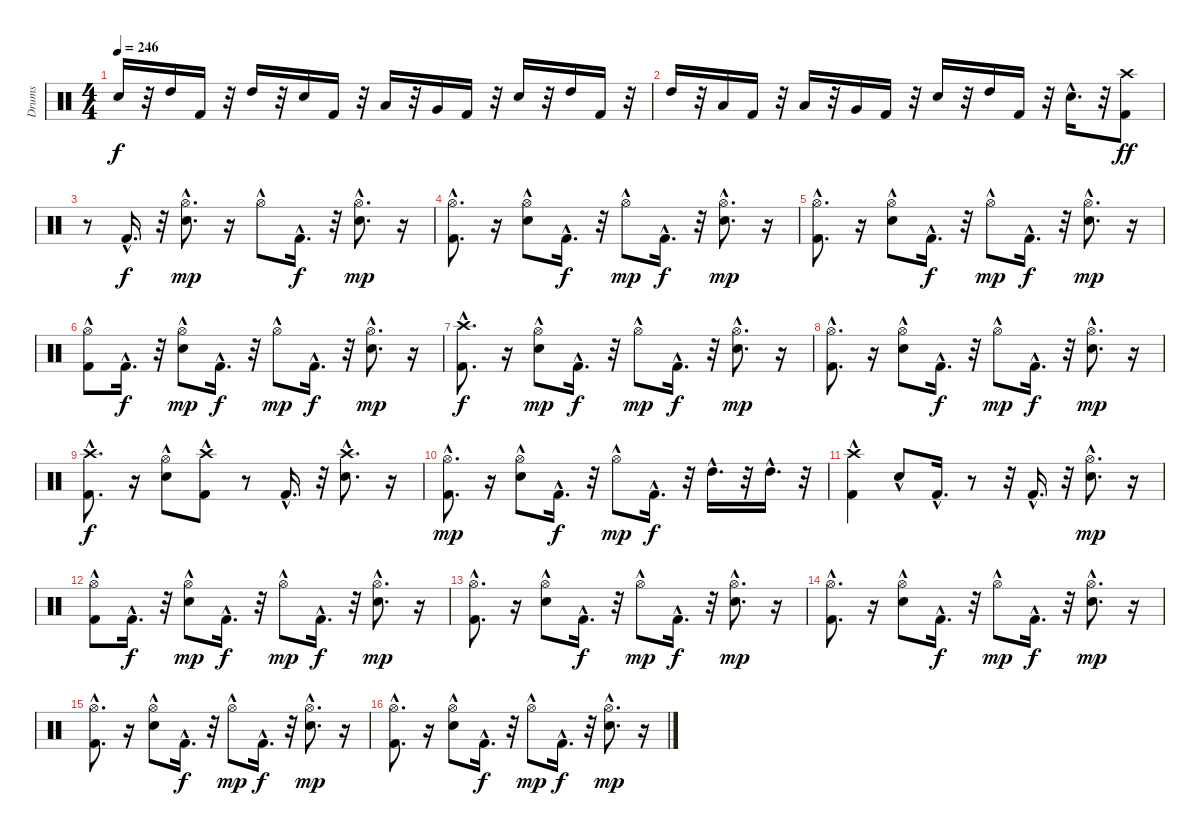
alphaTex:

\track ("Drums" "Drums") {instrument percussion}
\staff {score}
\articulation defaults
\ts (4 4)
\tempo 246
\clef neutral
\ks c "Electric Snare (hit)".16{dy f}
r.32 "High Tom (hit)".16 "Kick (hit) 2".16 r.32 "High Tom (hit)".16 r.32 "Electric Snare (hit)".16 "Kick (hit) 2".16 r.32 "Low Tom (hit)".16 r.32 "Very Low Tom (hit)".16 "Kick (hit) 2".16 r.32 "Electric Snare (hit)".16 r.32 "High Tom (hit)".16 "Kick (hit) 2".16 r.32 |
"High Tom (hit)".16 r.32 "Low Tom (hit)".16 "Kick (hit) 2".16 r.32 "Low Tom (hit)".16 r.32 "Very Low Tom (hit)".16 "Kick (hit) 2".16 r.32 "Electric Snare (hit)".16 r.32 "High Tom (hit)".16 "Kick (hit) 2".16 r.32 "Electric Snare (hit)"{hac}.16{d} r.32 ("Kick (hit) 2" "Crash high (hit)").8{dy ff} |
r.8 "Kick (hit) 2"{hac}.16{d dy f} r.32 ("Electric Snare (hit)"{hac} "Hi-Hat (open)"{hac}).8{d dy mp} r.16 "Hi-Hat (open)"{hac}.8 "Kick (hit) 2"{hac}.16{d dy f} r.32 ("Electric Snare (hit)"{hac} "Hi-Hat (open)"{hac}).8{d dy mp} r.16 |
("Kick (hit) 2"{hac} "Hi-Hat (open)"{hac}).8{d} r.16 ("Electric Snare (hit)"{hac} "Hi-Hat (open)"{hac}).8 "Kick (hit) 2"{hac}.16{d dy f} r.32 "Hi-Hat (open)"{hac}.8{dy mp} "Kick (hit) 2"{hac}.16{d dy f} r.32 ("Electric Snare (hit)"{hac} "Hi-Hat (open)"{hac}).8{d dy mp} r.16 |
("Kick (hit) 2"{hac} "Hi-Hat (open)"{hac}).8{d} r.16 ("Electric Snare (hit)"{hac} "Hi-Hat (open)"{hac}).8 "Kick (hit) 2"{hac}.16{d dy f} r.32 "Hi-Hat (open)"{hac}.8{dy mp} "Kick (hit) 2"{hac}.16{d dy f} r.32 ("Electric Snare (hit)"{hac} "Hi-Hat (open)"{hac}).8{d dy mp} r.16 |
("Kick (hit) 2"{hac} "Hi-Hat (open)"{hac}).8 "Kick (hit) 2"{hac}.16{d dy f} r.32 ("Electric Snare (hit)"{hac} "Hi-Hat (open)"{hac}).8{dy mp} "Kick (hit) 2"{hac}.16{d dy f} r.32 "Hi-Hat (open)"{hac}.8{dy mp} "Kick (hit) 2"{hac}.16{d dy f} r.32 ("Electric Snare (hit)"{hac} "Hi-Hat (open)"{hac}).8{d dy mp} r.16 |
("Crash high (hit)"{hac} "Kick (hit) 2"{hac}).8{d dy f} r.16 ("Electric Snare (hit)"{hac} "Hi-Hat (open)"{hac}).8{dy mp} "Kick (hit) 2"{hac}.16{d dy f} r.32 "Hi-Hat (open)"{hac}.8{dy mp} "Kick (hit) 2"{hac}.16{d dy f} r.32 ("Electric Snare (hit)"{hac} "Hi-Hat (open)"{hac}).8{d dy mp} r.16 |
("Kick (hit) 2"{hac} "Hi-Hat (open)"{hac}).8{d} r.16 ("Electric Snare (hit)"{hac} "Hi-Hat (open)"{hac}).8 "Kick (hit) 2"{hac}.16{d dy f} r.32 "Hi-Hat (open)"{hac}.8{dy mp} "Kick (hit) 2"{hac}.16{d dy f} r.32 ("Electric Snare (hit)"{hac} "Hi-Hat (open)"{hac}).8{d dy mp} r.16 |
("Crash high (hit)"{hac} "Kick (hit) 2"{hac}).8{d dy f} r.16 ("Electric Snare (hit)"{hac} "Hi-Hat (open)"{hac}).8 ("Kick (hit) 2"{hac} "Crash high (hit)").8 r.8 "Kick (hit) 2"{hac}.16{d} r.32 ("Crash high (hit)"{hac} "Electric Snare (hit)"{hac}).8{d} r.16 |
("Kick (hit) 2"{hac} "Hi-Hat (open)"{hac}).8{d dy mp} r.16 ("Electric Snare (hit)"{hac} "Hi-Hat (open)"{hac}).8 "Kick (hit) 2"{hac}.16{d dy f} r.32 "Hi-Hat (open)"{hac}.8{dy mp} "Kick (hit) 2"{hac}.16{d dy f} r.32 "High Tom (hit)"{hac}.16{d} r.32 "High Tom (hit)"{hac}.16{d} r.32 |
("Crash high (hit)" "Kick (hit) 2"{hac}).4 "Electric Snare (hit)"{hac}.8 "Kick (hit) 2"{hac}.16{d} r.8 r.32 "Kick (hit) 2"{hac}.16{d} r.32 ("Electric Snare (hit)"{hac} "Hi-Hat (open)"{hac}).8{d dy mp} r.16 |
("Kick (hit) 2"{hac} "Hi-Hat (open)"{hac}).8 "Kick (hit) 2"{hac}.16{d dy f} r.32 ("Electric Snare (hit)"{hac} "Hi-Hat (open)"{hac}).8{dy mp} "Kick (hit) 2"{hac}.16{d dy f} r.32 "Hi-Hat (open)"{hac}.8{dy mp} "Kick (hit) 2"{hac}.16{d dy f} r.32 ("Electric Snare (hit)"{hac} "Hi-Hat (open)"{hac}).8{d dy mp} r.16 |
("Kick (hit) 2"{hac} "Hi-Hat (open)"{hac}).8{d} r.16 ("Electric Snare (hit)"{hac} "Hi-Hat (open)"{hac}).8 "Kick (hit) 2"{hac}.16{d dy f} r.32 "Hi-Hat (open)"{hac}.8{dy mp} "Kick (hit) 2"{hac}.16{d dy f} r.32 ("Electric Snare (hit)"{hac} "Hi-Hat (open)"{hac}).8{d dy mp} r.16 |
("Kick (hit) 2"{hac} "Hi-Hat (open)"{hac}).8{d} r.16 ("Electric Snare (hit)"{hac} "Hi-Hat (open)"{hac}).8 "Kick (hit) 2"{hac}.16{d dy f} r.32 "Hi-Hat (open)"{hac}.8{dy mp} "Kick (hit) 2"{hac}.16{d dy f} r.32 ("Electric Snare (hit)"{hac} "Hi-Hat (open)"{hac}).8{d dy mp} r.16 |
("Kick (hit) 2"{hac} "Hi-Hat (open)"{hac}).8{d} r.16 ("Electric Snare (hit)"{hac} "Hi-Hat (open)"{hac}).8 "Kick (hit) 2"{hac}.16{d dy f} r.32 "Hi-Hat (open)"{hac}.8{dy mp} "Kick (hit) 2"{hac}.16{d dy f} r.32 ("Electric Snare (hit)"{hac} "Hi-Hat (open)"{hac}).8{d dy mp} r.16 |
("Kick (hit) 2"{hac} "Hi-Hat (open)"{hac}).8{d} r.16 ("Electric Snare (hit)"{hac} "Hi-Hat (open)"{hac}).8 "Kick (hit) 2"{hac}.16{d dy f} r.32 "Hi-Hat (open)"{hac}.8{dy mp} "Kick (hit) 2"{hac}.16{d dy f} r.32 ("Electric Snare (hit)"{hac} "Hi-Hat (open)"{hac}).8{d dy mp} r.16
